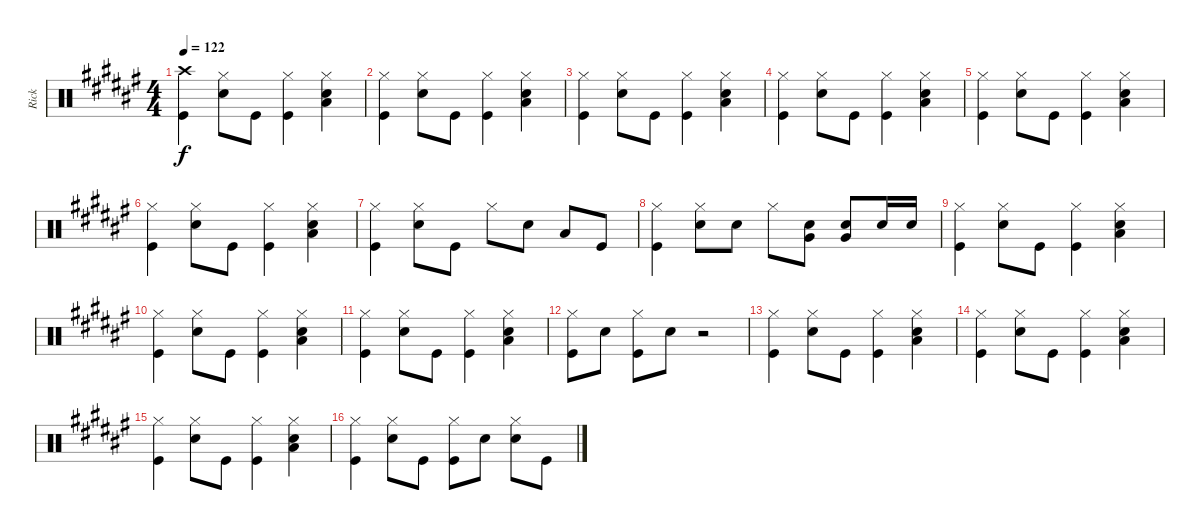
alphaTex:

\track ("Rick" "Rick") {instrument percussion}
\staff {score}
\articulation defaults
\ts (4 4)
\tempo 122
\clef neutral
\ks f#
("Crash high (hit)" "Kick (hit)").4{dy f} ("Hi-Hat (closed)" "Snare (hit) 2").8 "Kick (hit)".8 ("Hi-Hat (closed)" "Kick (hit)").4 ("Hi-Hat (closed)" "Snare (hit) 2" "Low Tom (hit)").4 |
("Hi-Hat (closed)" "Kick (hit)").4 ("Hi-Hat (closed)" "Snare (hit) 2").8 "Kick (hit)".8 ("Hi-Hat (closed)" "Kick (hit)").4 ("Hi-Hat (closed)" "Snare (hit) 2" "Low Tom (hit)").4 |
("Hi-Hat (closed)" "Kick (hit)").4 ("Hi-Hat (closed)" "Snare (hit) 2").8 "Kick (hit)".8 ("Hi-Hat (closed)" "Kick (hit)").4 ("Hi-Hat (closed)" "Snare (hit) 2" "Low Tom (hit)").4 |
("Hi-Hat (closed)" "Kick (hit)").4 ("Hi-Hat (closed)" "Snare (hit) 2").8 "Kick (hit)".8 ("Hi-Hat (closed)" "Kick (hit)").4 ("Hi-Hat (closed)" "Snare (hit) 2" "Low Tom (hit)").4 |
("Hi-Hat (closed)" "Kick (hit)").4 ("Hi-Hat (closed)" "Snare (hit) 2").8 "Kick (hit)".8 ("Hi-Hat (closed)" "Kick (hit)").4 ("Hi-Hat (closed)" "Snare (hit) 2" "Low Tom (hit)").4 |
("Hi-Hat (closed)" "Kick (hit)").4 ("Hi-Hat (closed)" "Snare (hit) 2").8 "Kick (hit)".8 ("Hi-Hat (closed)" "Kick (hit)").4 ("Hi-Hat (closed)" "Snare (hit) 2" "Low Tom (hit)").4 |
("Hi-Hat (closed)" "Kick (hit)").4 ("Hi-Hat (closed)" "Snare (hit) 2").8 "Kick (hit)".8 "Hi-Hat (closed)".8 "Snare (hit) 2".8 "Low Tom (hit)".8 "Kick (hit)".8 |
("Hi-Hat (closed)" "Kick (hit)").4 ("Hi-Hat (closed)" "Snare (hit) 2").8 "Snare (hit) 2".8 "Hi-Hat (closed)".8 ("Snare (hit) 2" "Very Low Tom (hit)").8 ("Snare (hit) 2" "Very Low Tom (hit)").8 "Snare (hit) 2".16 "Snare (hit) 2".16 |
("Hi-Hat (closed)" "Kick (hit)").4 ("Hi-Hat (closed)" "Snare (hit) 2").8 "Kick (hit)".8 ("Hi-Hat (closed)" "Kick (hit)").4 ("Hi-Hat (closed)" "Snare (hit) 2" "Low Tom (hit)").4 |
("Hi-Hat (closed)" "Kick (hit)").4 ("Hi-Hat (closed)" "Snare (hit) 2").8 "Kick (hit)".8 ("Hi-Hat (closed)" "Kick (hit)").4 ("Hi-Hat (closed)" "Snare (hit) 2" "Low Tom (hit)").4 |
("Hi-Hat (closed)" "Kick (hit)").4 ("Hi-Hat (closed)" "Snare (hit) 2").8 "Kick (hit)".8 ("Hi-Hat (closed)" "Kick (hit)").4 ("Hi-Hat (closed)" "Snare (hit) 2" "Low Tom (hit)").4 |
("Hi-Hat (closed)" "Kick (hit)").8 "Snare (hit) 2".8 ("Hi-Hat (closed)" "Kick (hit)").8 "Snare (hit) 2".8 r.2 |
("Hi-Hat (closed)" "Kick (hit)").4 ("Hi-Hat (closed)" "Snare (hit) 2").8 "Kick (hit)".8 ("Hi-Hat (closed)" "Kick (hit)").4 ("Hi-Hat (closed)" "Snare (hit) 2" "Low Tom (hit)").4 |
("Hi-Hat (closed)" "Kick (hit)").4 ("Hi-Hat (closed)" "Snare (hit) 2").8 "Kick (hit)".8 ("Hi-Hat (closed)" "Kick (hit)").4 ("Hi-Hat (closed)" "Snare (hit) 2" "Low Tom (hit)").4 |
("Hi-Hat (closed)" "Kick (hit)").4 ("Hi-Hat (closed)" "Snare (hit) 2").8 "Kick (hit)".8 ("Hi-Hat (closed)" "Kick (hit)").4 ("Hi-Hat (closed)" "Snare (hit) 2" "Low Tom (hit)").4 |
("Hi-Hat (closed)" "Kick (hit)").4 ("Hi-Hat (closed)" "Snare (hit) 2").8 "Kick (hit)".8 ("Hi-Hat (closed)" "Kick (hit)").8 "Snare (hit) 2".8 ("Hi-Hat (closed)" "Snare (hit) 2").8 "Kick (hit)".8
